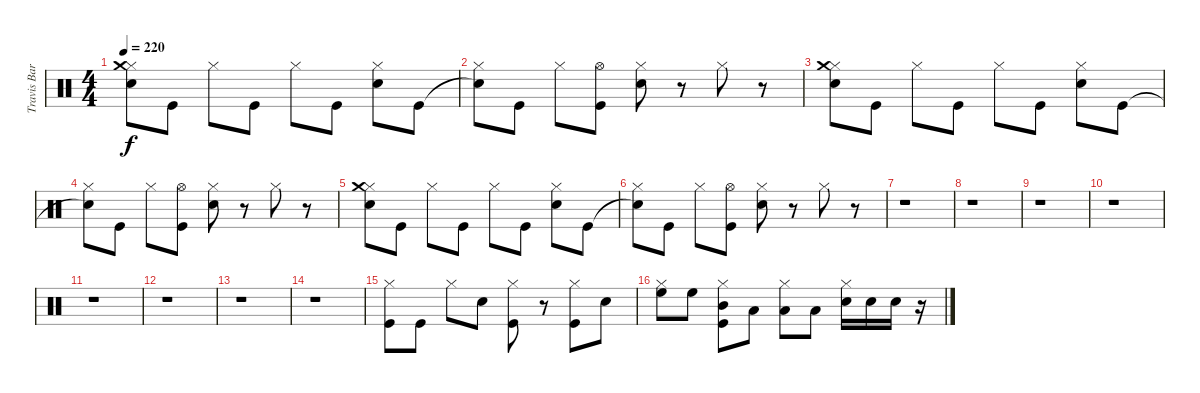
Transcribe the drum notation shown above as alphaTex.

\track ("Travis Barker (Drums)" "Travis Bar") {instrument percussion}
\staff {score}
\articulation defaults
\ts (4 4)
\tempo 220
\clef neutral
\ks c
("Electric Snare (hit)" "Hi-Hat (closed)" "Crash medium (hit)").8{dy f} "Kick (hit)".8 "Hi-Hat (closed)".8 "Kick (hit)".8 "Hi-Hat (closed)".8 "Kick (hit)".8 ("Electric Snare (hit)" "Hi-Hat (closed)").8 "Kick (hit)".8 |
("Snare (hit)"{t} "Hi-Hat (closed)").8 "Kick (hit)".8 "Hi-Hat (closed)".8 ("Kick (hit)" "Hi-Hat (open)").8 ("Electric Snare (hit)" "Hi-Hat (closed)").8 r.8 "Hi-Hat (closed)".8 r.8 |
("Electric Snare (hit)" "Hi-Hat (closed)" "Crash medium (hit)").8 "Kick (hit)".8 "Hi-Hat (closed)".8 "Kick (hit)".8 "Hi-Hat (closed)".8 "Kick (hit)".8 ("Electric Snare (hit)" "Hi-Hat (closed)").8 "Kick (hit)".8 |
("Snare (hit)"{t} "Hi-Hat (closed)").8 "Kick (hit)".8 "Hi-Hat (closed)".8 ("Kick (hit)" "Hi-Hat (open)").8 ("Electric Snare (hit)" "Hi-Hat (closed)").8 r.8 "Hi-Hat (closed)".8 r.8 |
("Electric Snare (hit)" "Hi-Hat (closed)" "Crash medium (hit)").8 "Kick (hit)".8 "Hi-Hat (closed)".8 "Kick (hit)".8 "Hi-Hat (closed)".8 "Kick (hit)".8 ("Electric Snare (hit)" "Hi-Hat (closed)").8 "Kick (hit)".8 |
("Snare (hit)"{t} "Hi-Hat (closed)").8 "Kick (hit)".8 "Hi-Hat (closed)".8 ("Kick (hit)" "Hi-Hat (open)").8 ("Electric Snare (hit)" "Hi-Hat (closed)").8 r.8 "Hi-Hat (closed)".8 r.8 |
r.1 |
r.1 |
r.1 |
r.1 |
r.1 |
r.1 |
r.1 |
r.1 |
("Kick (hit)" "Hi-Hat (closed)").8 "Kick (hit)".8 "Hi-Hat (closed)".8 "Electric Snare (hit)".8 ("Kick (hit)" "Hi-Hat (closed)").8 r.8 ("Kick (hit)" "Hi-Hat (closed)").8 "Electric Snare (hit)".8 |
("High Floor Tom (hit)" "Hi-Hat (closed)").8 "High Floor Tom (hit)".8 ("Kick (hit)" "Mid Tom (hit)" "Hi-Hat (closed)").8 "Low Tom (hit)".8 ("Low Floor Tom (hit)" "Hi-Hat (closed)").8 "Low Floor Tom (hit)".8 ("Electric Snare (hit)" "Hi-Hat (closed)").16 "Electric Snare (hit)".16 "Electric Snare (hit)".16 r.16
